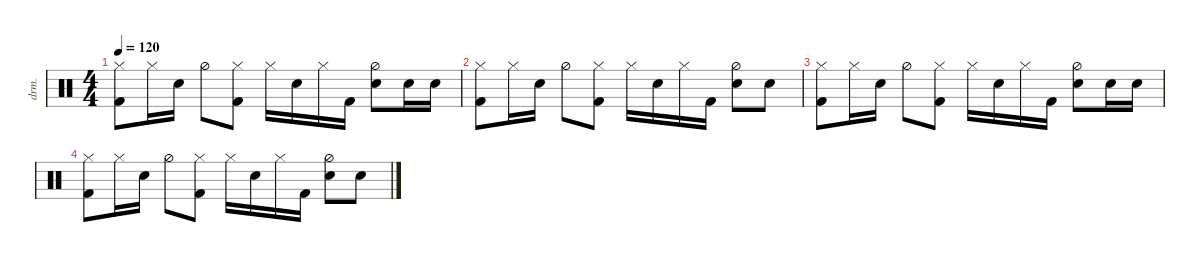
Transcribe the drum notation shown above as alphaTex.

\defaultSystemsLayout 4
\hideDynamics
\bracketExtendMode nobrackets
\otherSystemsTrackNameOrientation horizontal
\track ("Drumkit" "drm.") {instrument percussion}
\staff {score}
\articulation defaults
\ts (4 4)
\tempo 120
\clef neutral
\ks c
("Kick (hit) 2" "Hi-Hat (closed)").8{dy mf beam Down} "Hi-Hat (closed)".16{beam Down} "Snare (hit) 2".16{beam Down} "Hi-Hat (half)".8{beam Down} ("Kick (hit) 2" "Hi-Hat (closed)").8{beam Down} "Hi-Hat (closed)".16{beam Down} "Snare (hit) 2".16{beam Down} "Hi-Hat (closed)".16{beam Down} "Kick (hit) 2".16{beam Down} ("Snare (hit) 2" "Hi-Hat (half)").8{beam Down} "Snare (hit) 2".16{beam Down} "Snare (hit) 2".16{beam Down} |
("Kick (hit) 2" "Hi-Hat (closed)").8{beam Down} "Hi-Hat (closed)".16{beam Down} "Snare (hit) 2".16{beam Down} "Hi-Hat (half)".8{beam Down} ("Kick (hit) 2" "Hi-Hat (closed)").8{beam Down} "Hi-Hat (closed)".16{beam Down} "Snare (hit) 2".16{beam Down} "Hi-Hat (closed)".16{beam Down} "Kick (hit) 2".16{beam Down} ("Snare (hit) 2" "Hi-Hat (half)").8{beam Down} "Snare (hit) 2".8{beam Down} |
("Kick (hit) 2" "Hi-Hat (closed)").8{beam Down} "Hi-Hat (closed)".16{beam Down} "Snare (hit) 2".16{beam Down} "Hi-Hat (half)".8{beam Down} ("Kick (hit) 2" "Hi-Hat (closed)").8{beam Down} "Hi-Hat (closed)".16{beam Down} "Snare (hit) 2".16{beam Down} "Hi-Hat (closed)".16{beam Down} "Kick (hit) 2".16{beam Down} ("Snare (hit) 2" "Hi-Hat (half)").8{beam Down} "Snare (hit) 2".16{beam Down} "Snare (hit) 2".16{beam Down} |
("Kick (hit) 2" "Hi-Hat (closed)").8{beam Down} "Hi-Hat (closed)".16{beam Down} "Snare (hit) 2".16{beam Down} "Hi-Hat (half)".8{beam Down} ("Kick (hit) 2" "Hi-Hat (closed)").8{beam Down} "Hi-Hat (closed)".16{beam Down} "Snare (hit) 2".16{beam Down} "Hi-Hat (closed)".16{beam Down} "Kick (hit) 2".16{beam Down} ("Snare (hit) 2" "Hi-Hat (half)").8{beam Down} "Snare (hit) 2".8{beam Down}
